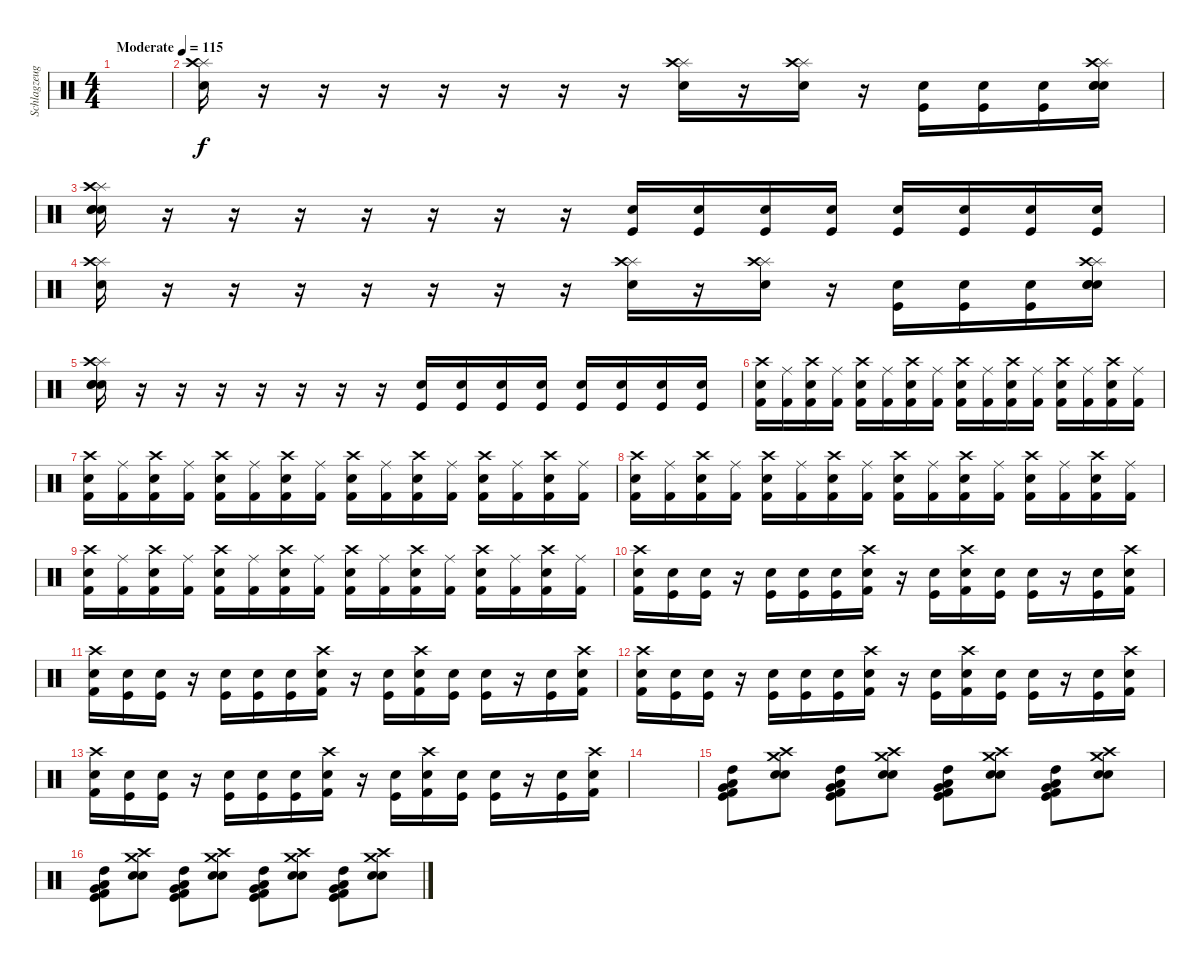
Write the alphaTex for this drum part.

\track ("Schlagzeug" "Schlagzeug") {instrument percussion}
\staff {score}
\articulation defaults
\ts (4 4)
\tempo (115 "Moderate")
\clef neutral
\ks c
|
("Splash (hit)" "Crash high (hit)" "Snare (hit) 2").16 r.16 r.16 r.16 r.16 r.16 r.16 r.16 ("Splash (hit)" "Crash high (hit)" "Snare (hit) 2").16 r.16 ("Splash (hit)" "Crash high (hit)" "Snare (hit) 2").16 r.16 ("Kick (hit)" "Snare (hit) 2").16 ("Kick (hit)" "Snare (hit) 2").16 ("Kick (hit)" "Snare (hit) 2").16 ("Electric Snare (hit)" "Snare (hit) 2" "Splash (hit)" "Crash high (hit)" "Snare (hit) 2").16 |
("Electric Snare (hit)" "Snare (hit) 2" "Splash (hit)" "Crash high (hit)" "Snare (hit) 2").16 r.16 r.16 r.16 r.16 r.16 r.16 r.16 ("Kick (hit)" "Snare (hit) 2").16 ("Kick (hit)" "Snare (hit) 2").16 ("Kick (hit)" "Snare (hit) 2").16 ("Kick (hit)" "Snare (hit) 2").16 ("Kick (hit)" "Snare (hit) 2").16 ("Kick (hit)" "Snare (hit) 2").16 ("Kick (hit)" "Snare (hit) 2").16 ("Kick (hit)" "Snare (hit) 2").16 |
("Splash (hit)" "Crash high (hit)" "Snare (hit) 2").16 r.16 r.16 r.16 r.16 r.16 r.16 r.16 ("Splash (hit)" "Crash high (hit)" "Snare (hit) 2").16 r.16 ("Splash (hit)" "Crash high (hit)" "Snare (hit) 2").16 r.16 ("Kick (hit)" "Snare (hit) 2").16 ("Kick (hit)" "Snare (hit) 2").16 ("Kick (hit)" "Snare (hit) 2").16 ("Electric Snare (hit)" "Snare (hit) 2" "Splash (hit)" "Crash high (hit)" "Snare (hit) 2").16 |
("Electric Snare (hit)" "Snare (hit) 2" "Splash (hit)" "Crash high (hit)" "Snare (hit) 2").16 r.16 r.16 r.16 r.16 r.16 r.16 r.16 ("Kick (hit)" "Snare (hit) 2").16 ("Kick (hit)" "Snare (hit) 2").16 ("Kick (hit)" "Snare (hit) 2").16 ("Kick (hit)" "Snare (hit) 2").16 ("Kick (hit)" "Snare (hit) 2").16 ("Kick (hit)" "Snare (hit) 2").16 ("Kick (hit)" "Snare (hit) 2").16 ("Kick (hit)" "Snare (hit) 2").16 |
("Crash high (hit)" "Electric Snare (hit)" "Kick (hit) 2").16 ("Ride (middle)" "Kick (hit) 2").16 ("Crash high (hit)" "Electric Snare (hit)" "Kick (hit) 2").16 ("Ride (middle)" "Kick (hit) 2").16 ("Crash high (hit)" "Electric Snare (hit)" "Kick (hit) 2").16 ("Ride (middle)" "Kick (hit) 2").16 ("Crash high (hit)" "Electric Snare (hit)" "Kick (hit) 2").16 ("Ride (middle)" "Kick (hit) 2").16 ("Crash high (hit)" "Electric Snare (hit)" "Kick (hit) 2").16 ("Ride (middle)" "Kick (hit) 2").16 ("Crash high (hit)" "Electric Snare (hit)" "Kick (hit) 2").16 ("Ride (middle)" "Kick (hit) 2").16 ("Crash high (hit)" "Electric Snare (hit)" "Kick (hit) 2").16 ("Ride (middle)" "Kick (hit) 2").16 ("Crash high (hit)" "Electric Snare (hit)" "Kick (hit) 2").16 ("Ride (middle)" "Kick (hit) 2").16 |
("Crash high (hit)" "Electric Snare (hit)" "Kick (hit) 2").16 ("Ride (middle)" "Kick (hit) 2").16 ("Crash high (hit)" "Electric Snare (hit)" "Kick (hit) 2").16 ("Ride (middle)" "Kick (hit) 2").16 ("Crash high (hit)" "Electric Snare (hit)" "Kick (hit) 2").16 ("Ride (middle)" "Kick (hit) 2").16 ("Crash high (hit)" "Electric Snare (hit)" "Kick (hit) 2").16 ("Ride (middle)" "Kick (hit) 2").16 ("Crash high (hit)" "Electric Snare (hit)" "Kick (hit) 2").16 ("Ride (middle)" "Kick (hit) 2").16 ("Crash high (hit)" "Electric Snare (hit)" "Kick (hit) 2").16 ("Ride (middle)" "Kick (hit) 2").16 ("Crash high (hit)" "Electric Snare (hit)" "Kick (hit) 2").16 ("Ride (middle)" "Kick (hit) 2").16 ("Crash high (hit)" "Electric Snare (hit)" "Kick (hit) 2").16 ("Ride (middle)" "Kick (hit) 2").16 |
("Crash high (hit)" "Electric Snare (hit)" "Kick (hit) 2").16 ("Ride (middle)" "Kick (hit) 2").16 ("Crash high (hit)" "Electric Snare (hit)" "Kick (hit) 2").16 ("Ride (middle)" "Kick (hit) 2").16 ("Crash high (hit)" "Electric Snare (hit)" "Kick (hit) 2").16 ("Ride (middle)" "Kick (hit) 2").16 ("Crash high (hit)" "Electric Snare (hit)" "Kick (hit) 2").16 ("Ride (middle)" "Kick (hit) 2").16 ("Crash high (hit)" "Electric Snare (hit)" "Kick (hit) 2").16 ("Ride (middle)" "Kick (hit) 2").16 ("Crash high (hit)" "Electric Snare (hit)" "Kick (hit) 2").16 ("Ride (middle)" "Kick (hit) 2").16 ("Crash high (hit)" "Electric Snare (hit)" "Kick (hit) 2").16 ("Ride (middle)" "Kick (hit) 2").16 ("Crash high (hit)" "Electric Snare (hit)" "Kick (hit) 2").16 ("Ride (middle)" "Kick (hit) 2").16 |
("Crash high (hit)" "Electric Snare (hit)" "Kick (hit) 2").16 ("Ride (middle)" "Kick (hit) 2").16 ("Crash high (hit)" "Electric Snare (hit)" "Kick (hit) 2").16 ("Ride (middle)" "Kick (hit) 2").16 ("Crash high (hit)" "Electric Snare (hit)" "Kick (hit) 2").16 ("Ride (middle)" "Kick (hit) 2").16 ("Crash high (hit)" "Electric Snare (hit)" "Kick (hit) 2").16 ("Ride (middle)" "Kick (hit) 2").16 ("Crash high (hit)" "Electric Snare (hit)" "Kick (hit) 2").16 ("Ride (middle)" "Kick (hit) 2").16 ("Crash high (hit)" "Electric Snare (hit)" "Kick (hit) 2").16 ("Ride (middle)" "Kick (hit) 2").16 ("Crash high (hit)" "Electric Snare (hit)" "Kick (hit) 2").16 ("Ride (middle)" "Kick (hit) 2").16 ("Crash high (hit)" "Electric Snare (hit)" "Kick (hit) 2").16 ("Ride (middle)" "Kick (hit) 2").16 |
("Crash high (hit)" "Electric Snare (hit)" "Kick (hit) 2").16 ("Kick (hit)" "Snare (hit) 2").16 ("Kick (hit)" "Snare (hit) 2").16 r.16 ("Kick (hit)" "Snare (hit) 2").16 ("Kick (hit)" "Snare (hit) 2").16 ("Kick (hit)" "Snare (hit) 2").16 ("Crash high (hit)" "Electric Snare (hit)" "Kick (hit) 2").16 r.16 ("Kick (hit)" "Snare (hit) 2").16 ("Crash high (hit)" "Electric Snare (hit)" "Kick (hit) 2").16 ("Kick (hit)" "Snare (hit) 2").16 ("Kick (hit)" "Snare (hit) 2").16 r.16 ("Kick (hit)" "Snare (hit) 2").16 ("Crash high (hit)" "Electric Snare (hit)" "Kick (hit) 2").16 |
("Crash high (hit)" "Electric Snare (hit)" "Kick (hit) 2").16 ("Kick (hit)" "Snare (hit) 2").16 ("Kick (hit)" "Snare (hit) 2").16 r.16 ("Kick (hit)" "Snare (hit) 2").16 ("Kick (hit)" "Snare (hit) 2").16 ("Kick (hit)" "Snare (hit) 2").16 ("Crash high (hit)" "Electric Snare (hit)" "Kick (hit) 2").16 r.16 ("Kick (hit)" "Snare (hit) 2").16 ("Crash high (hit)" "Electric Snare (hit)" "Kick (hit) 2").16 ("Kick (hit)" "Snare (hit) 2").16 ("Kick (hit)" "Snare (hit) 2").16 r.16 ("Kick (hit)" "Snare (hit) 2").16 ("Crash high (hit)" "Electric Snare (hit)" "Kick (hit) 2").16 |
("Crash high (hit)" "Electric Snare (hit)" "Kick (hit) 2").16 ("Kick (hit)" "Snare (hit) 2").16 ("Kick (hit)" "Snare (hit) 2").16 r.16 ("Kick (hit)" "Snare (hit) 2").16 ("Kick (hit)" "Snare (hit) 2").16 ("Kick (hit)" "Snare (hit) 2").16 ("Crash high (hit)" "Electric Snare (hit)" "Kick (hit) 2").16 r.16 ("Kick (hit)" "Snare (hit) 2").16 ("Crash high (hit)" "Electric Snare (hit)" "Kick (hit) 2").16 ("Kick (hit)" "Snare (hit) 2").16 ("Kick (hit)" "Snare (hit) 2").16 r.16 ("Kick (hit)" "Snare (hit) 2").16 ("Crash high (hit)" "Electric Snare (hit)" "Kick (hit) 2").16 |
("Crash high (hit)" "Electric Snare (hit)" "Kick (hit) 2").16 ("Kick (hit)" "Snare (hit) 2").16 ("Kick (hit)" "Snare (hit) 2").16 r.16 ("Kick (hit)" "Snare (hit) 2").16 ("Kick (hit)" "Snare (hit) 2").16 ("Kick (hit)" "Snare (hit) 2").16 ("Crash high (hit)" "Electric Snare (hit)" "Kick (hit) 2").16 r.16 ("Kick (hit)" "Snare (hit) 2").16 ("Crash high (hit)" "Electric Snare (hit)" "Kick (hit) 2").16 ("Kick (hit)" "Snare (hit) 2").16 ("Kick (hit)" "Snare (hit) 2").16 r.16 ("Kick (hit)" "Snare (hit) 2").16 ("Crash high (hit)" "Electric Snare (hit)" "Kick (hit) 2").16 |
|
("Kick (hit) 2" "Kick (hit)" "High Tom (hit)" "Low Tom (hit)" "Very Low Tom (hit)").8 ("Snare (hit) 2" "Electric Snare (hit)" "Crash medium (hit)" "Crash high (hit)").8 ("Kick (hit) 2" "Kick (hit)" "High Tom (hit)" "Low Tom (hit)" "Very Low Tom (hit)").8 ("Snare (hit) 2" "Electric Snare (hit)" "Crash medium (hit)" "Crash high (hit)").8 ("Kick (hit) 2" "Kick (hit)" "High Tom (hit)" "Low Tom (hit)" "Very Low Tom (hit)").8 ("Snare (hit) 2" "Electric Snare (hit)" "Crash medium (hit)" "Crash high (hit)").8 ("Kick (hit) 2" "Kick (hit)" "High Tom (hit)" "Low Tom (hit)" "Very Low Tom (hit)").8 ("Snare (hit) 2" "Electric Snare (hit)" "Crash medium (hit)" "Crash high (hit)").8 |
("Kick (hit) 2" "Kick (hit)" "High Tom (hit)" "Low Tom (hit)" "Very Low Tom (hit)").8 ("Snare (hit) 2" "Electric Snare (hit)" "Crash medium (hit)" "Crash high (hit)").8 ("Kick (hit) 2" "Kick (hit)" "High Tom (hit)" "Low Tom (hit)" "Very Low Tom (hit)").8 ("Snare (hit) 2" "Electric Snare (hit)" "Crash medium (hit)" "Crash high (hit)").8 ("Kick (hit) 2" "Kick (hit)" "High Tom (hit)" "Low Tom (hit)" "Very Low Tom (hit)").8 ("Snare (hit) 2" "Electric Snare (hit)" "Crash medium (hit)" "Crash high (hit)").8 ("Kick (hit) 2" "Kick (hit)" "High Tom (hit)" "Low Tom (hit)" "Very Low Tom (hit)").8 ("Snare (hit) 2" "Electric Snare (hit)" "Crash medium (hit)" "Crash high (hit)").8
